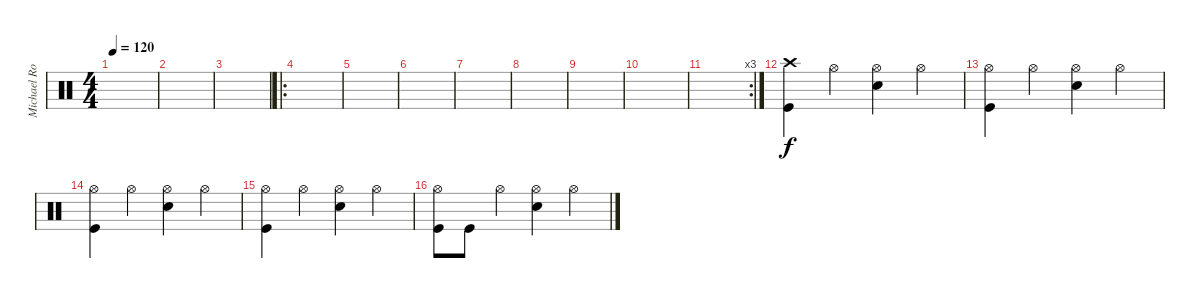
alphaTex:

\track ("Michael Roponus " "Michael Ro") {instrument percussion}
\staff {score}
\articulation defaults
\ts (4 4)
\tempo 120
\clef neutral
\ks c
|
|
|
\ro
|
|
|
|
|
|
|
\rc 3
|
("Crash high (hit)" "Kick (hit)").4 "Hi-Hat (open)".4 ("Hi-Hat (open)" "Snare (hit) 2").4 "Hi-Hat (open)".4 |
("Hi-Hat (open)" "Kick (hit)").4 "Hi-Hat (open)".4 ("Hi-Hat (open)" "Snare (hit) 2").4 "Hi-Hat (open)".4 |
("Hi-Hat (open)" "Kick (hit)").4 "Hi-Hat (open)".4 ("Hi-Hat (open)" "Snare (hit) 2").4 "Hi-Hat (open)".4 |
("Hi-Hat (open)" "Kick (hit)").4 "Hi-Hat (open)".4 ("Hi-Hat (open)" "Snare (hit) 2").4 "Hi-Hat (open)".4 |
("Hi-Hat (open)" "Kick (hit)").8 "Kick (hit)".8 "Hi-Hat (open)".4 ("Hi-Hat (open)" "Snare (hit) 2").4 "Hi-Hat (open)".4
